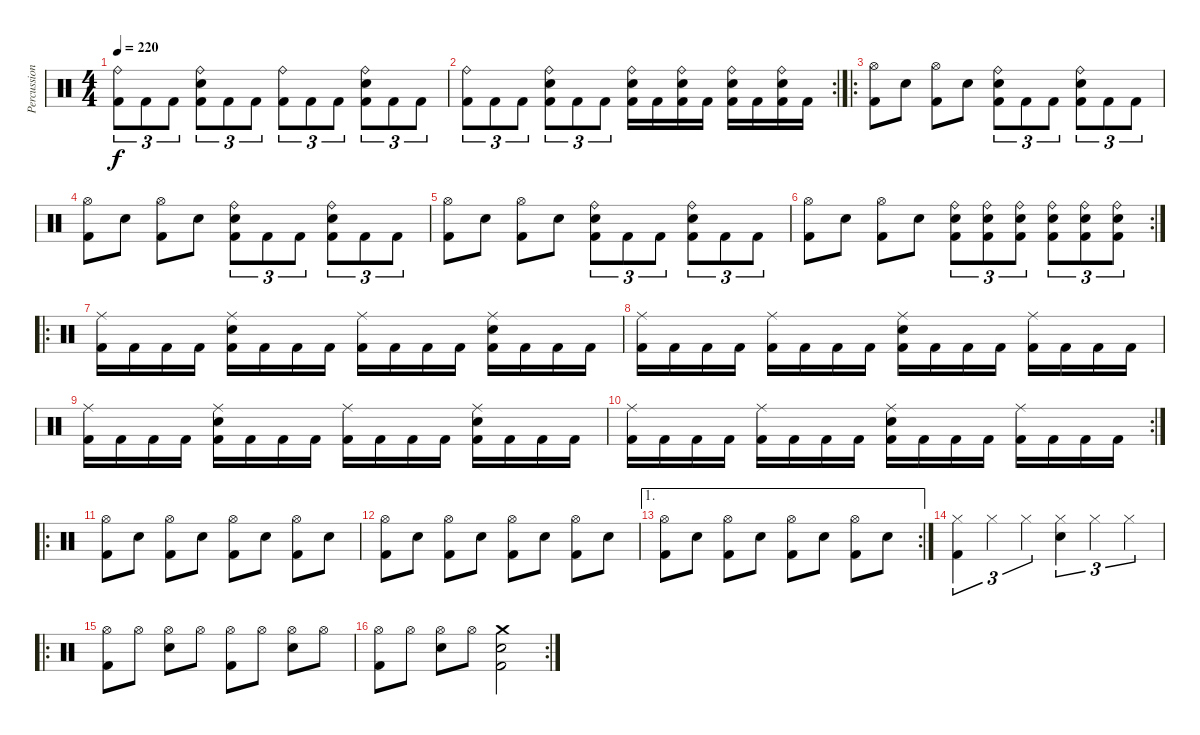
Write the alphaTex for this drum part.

\track ("Percussions" "Percussion") {instrument percussion}
\staff {score}
\articulation defaults
\ts (4 4)
\tempo 220
\clef neutral
\ks c
("Ride (bell)" "Kick (hit) 2").8{tu (3 2) dy f} "Kick (hit) 2".8{tu (3 2)} "Kick (hit) 2".8{tu (3 2)} ("Ride (bell)" "Snare (hit) 2" "Kick (hit) 2").8{tu (3 2)} "Kick (hit) 2".8{tu (3 2)} "Kick (hit) 2".8{tu (3 2)} ("Ride (bell)" "Kick (hit) 2").8{tu (3 2)} "Kick (hit) 2".8{tu (3 2)} "Kick (hit) 2".8{tu (3 2)} ("Ride (bell)" "Snare (hit) 2" "Kick (hit) 2").8{tu (3 2)} "Kick (hit) 2".8{tu (3 2)} "Kick (hit) 2".8{tu (3 2)} |
\rc 2
("Ride (bell)" "Kick (hit) 2").8{tu (3 2)} "Kick (hit) 2".8{tu (3 2)} "Kick (hit) 2".8{tu (3 2)} ("Ride (bell)" "Snare (hit) 2" "Kick (hit) 2").8{tu (3 2)} "Kick (hit) 2".8{tu (3 2)} "Kick (hit) 2".8{tu (3 2)} ("Ride (bell)" "Snare (hit) 2" "Kick (hit) 2").16 "Kick (hit) 2".16 ("Ride (bell)" "Snare (hit) 2" "Kick (hit) 2").16 "Kick (hit) 2".16 ("Ride (bell)" "Snare (hit) 2" "Kick (hit) 2").16 "Kick (hit) 2".16 ("Ride (bell)" "Snare (hit) 2" "Kick (hit) 2").16 "Kick (hit) 2".16 |
\ro
("Hi-Hat (open)" "Kick (hit) 2").8 "Snare (hit) 2".8 ("Hi-Hat (open)" "Kick (hit) 2").8 "Snare (hit) 2".8 ("Ride (bell)" "Snare (hit) 2" "Kick (hit) 2").8{tu (3 2)} "Kick (hit) 2".8{tu (3 2)} "Kick (hit) 2".8{tu (3 2)} ("Ride (bell)" "Snare (hit) 2" "Kick (hit) 2").8{tu (3 2)} "Kick (hit) 2".8{tu (3 2)} "Kick (hit) 2".8{tu (3 2)} |
("Hi-Hat (open)" "Kick (hit) 2").8 "Snare (hit) 2".8 ("Hi-Hat (open)" "Kick (hit) 2").8 "Snare (hit) 2".8 ("Ride (bell)" "Snare (hit) 2" "Kick (hit) 2").8{tu (3 2)} "Kick (hit) 2".8{tu (3 2)} "Kick (hit) 2".8{tu (3 2)} ("Ride (bell)" "Snare (hit) 2" "Kick (hit) 2").8{tu (3 2)} "Kick (hit) 2".8{tu (3 2)} "Kick (hit) 2".8{tu (3 2)} |
("Hi-Hat (open)" "Kick (hit) 2").8 "Snare (hit) 2".8 ("Hi-Hat (open)" "Kick (hit) 2").8 "Snare (hit) 2".8 ("Ride (bell)" "Snare (hit) 2" "Kick (hit) 2").8{tu (3 2)} "Kick (hit) 2".8{tu (3 2)} "Kick (hit) 2".8{tu (3 2)} ("Ride (bell)" "Snare (hit) 2" "Kick (hit) 2").8{tu (3 2)} "Kick (hit) 2".8{tu (3 2)} "Kick (hit) 2".8{tu (3 2)} |
\rc 2
("Hi-Hat (open)" "Kick (hit) 2").8 "Snare (hit) 2".8 ("Hi-Hat (open)" "Kick (hit) 2").8 "Snare (hit) 2".8 ("Ride (bell)" "Snare (hit) 2" "Kick (hit) 2").8{tu (3 2)} ("Ride (bell)" "Snare (hit) 2" "Kick (hit) 2").8{tu (3 2)} ("Ride (bell)" "Snare (hit) 2" "Kick (hit) 2").8{tu (3 2)} ("Ride (bell)" "Snare (hit) 2" "Kick (hit) 2").8{tu (3 2)} ("Ride (bell)" "Snare (hit) 2" "Kick (hit) 2").8{tu (3 2)} ("Ride (bell)" "Snare (hit) 2" "Kick (hit) 2").8{tu (3 2)} |
\ro
("Ride (middle)" "Kick (hit) 2").16 "Kick (hit) 2".16 "Kick (hit) 2".16 "Kick (hit) 2".16 ("Ride (middle)" "Snare (hit) 2" "Kick (hit) 2").16 "Kick (hit) 2".16 "Kick (hit) 2".16 "Kick (hit) 2".16 ("Ride (middle)" "Kick (hit) 2").16 "Kick (hit) 2".16 "Kick (hit) 2".16 "Kick (hit) 2".16 ("Ride (middle)" "Snare (hit) 2" "Kick (hit) 2").16 "Kick (hit) 2".16 "Kick (hit) 2".16 "Kick (hit) 2".16 |
("Ride (middle)" "Kick (hit) 2").16 "Kick (hit) 2".16 "Kick (hit) 2".16 "Kick (hit) 2".16 ("Ride (middle)" "Kick (hit) 2").16 "Kick (hit) 2".16 "Kick (hit) 2".16 "Kick (hit) 2".16 ("Ride (middle)" "Snare (hit) 2" "Kick (hit) 2").16 "Kick (hit) 2".16 "Kick (hit) 2".16 "Kick (hit) 2".16 ("Ride (middle)" "Kick (hit) 2").16 "Kick (hit) 2".16 "Kick (hit) 2".16 "Kick (hit) 2".16 |
("Ride (middle)" "Kick (hit) 2").16 "Kick (hit) 2".16 "Kick (hit) 2".16 "Kick (hit) 2".16 ("Ride (middle)" "Snare (hit) 2" "Kick (hit) 2").16 "Kick (hit) 2".16 "Kick (hit) 2".16 "Kick (hit) 2".16 ("Ride (middle)" "Kick (hit) 2").16 "Kick (hit) 2".16 "Kick (hit) 2".16 "Kick (hit) 2".16 ("Ride (middle)" "Snare (hit) 2" "Kick (hit) 2").16 "Kick (hit) 2".16 "Kick (hit) 2".16 "Kick (hit) 2".16 |
\rc 2
("Ride (middle)" "Kick (hit) 2").16 "Kick (hit) 2".16 "Kick (hit) 2".16 "Kick (hit) 2".16 ("Ride (middle)" "Kick (hit) 2").16 "Kick (hit) 2".16 "Kick (hit) 2".16 "Kick (hit) 2".16 ("Ride (middle)" "Snare (hit) 2" "Kick (hit) 2").16 "Kick (hit) 2".16 "Kick (hit) 2".16 "Kick (hit) 2".16 ("Ride (middle)" "Kick (hit) 2").16 "Kick (hit) 2".16 "Kick (hit) 2".16 "Kick (hit) 2".16 |
\ro
("Hi-Hat (open)" "Kick (hit) 2").8 "Snare (hit) 2".8 ("Hi-Hat (open)" "Kick (hit) 2").8 "Snare (hit) 2".8 ("Hi-Hat (open)" "Kick (hit) 2").8 "Snare (hit) 2".8 ("Hi-Hat (open)" "Kick (hit) 2").8 "Snare (hit) 2".8 |
("Hi-Hat (open)" "Kick (hit) 2").8 "Snare (hit) 2".8 ("Hi-Hat (open)" "Kick (hit) 2").8 "Snare (hit) 2".8 ("Hi-Hat (open)" "Kick (hit) 2").8 "Snare (hit) 2".8 ("Hi-Hat (open)" "Kick (hit) 2").8 "Snare (hit) 2".8 |
\ae 1
\rc 2
("Hi-Hat (open)" "Kick (hit) 2").8 "Snare (hit) 2".8 ("Hi-Hat (open)" "Kick (hit) 2").8 "Snare (hit) 2".8 ("Hi-Hat (open)" "Kick (hit) 2").8 "Snare (hit) 2".8 ("Hi-Hat (open)" "Kick (hit) 2").8 "Snare (hit) 2".8 |
("Hi-Hat (closed)" "Kick (hit) 2").4{tu (3 2)} "Hi-Hat (closed)".4{tu (3 2)} "Hi-Hat (closed)".4{tu (3 2)} ("Hi-Hat (closed)" "Snare (hit) 2").4{tu (3 2)} "Hi-Hat (closed)".4{tu (3 2)} "Hi-Hat (closed)".4{tu (3 2)} |
\ro
("Hi-Hat (open)" "Kick (hit) 2").8 "Hi-Hat (open)".8 ("Hi-Hat (open)" "Snare (hit) 2").8 "Hi-Hat (open)".8 ("Hi-Hat (open)" "Kick (hit) 2").8 "Hi-Hat (open)".8 ("Hi-Hat (open)" "Snare (hit) 2").8 "Hi-Hat (open)".8 |
\rc 2
("Hi-Hat (open)" "Kick (hit) 2").8 "Hi-Hat (open)".8 ("Hi-Hat (open)" "Snare (hit) 2").8 "Hi-Hat (open)".8 ("Crash medium (hit)" "Snare (hit) 2" "Kick (hit) 2").2
